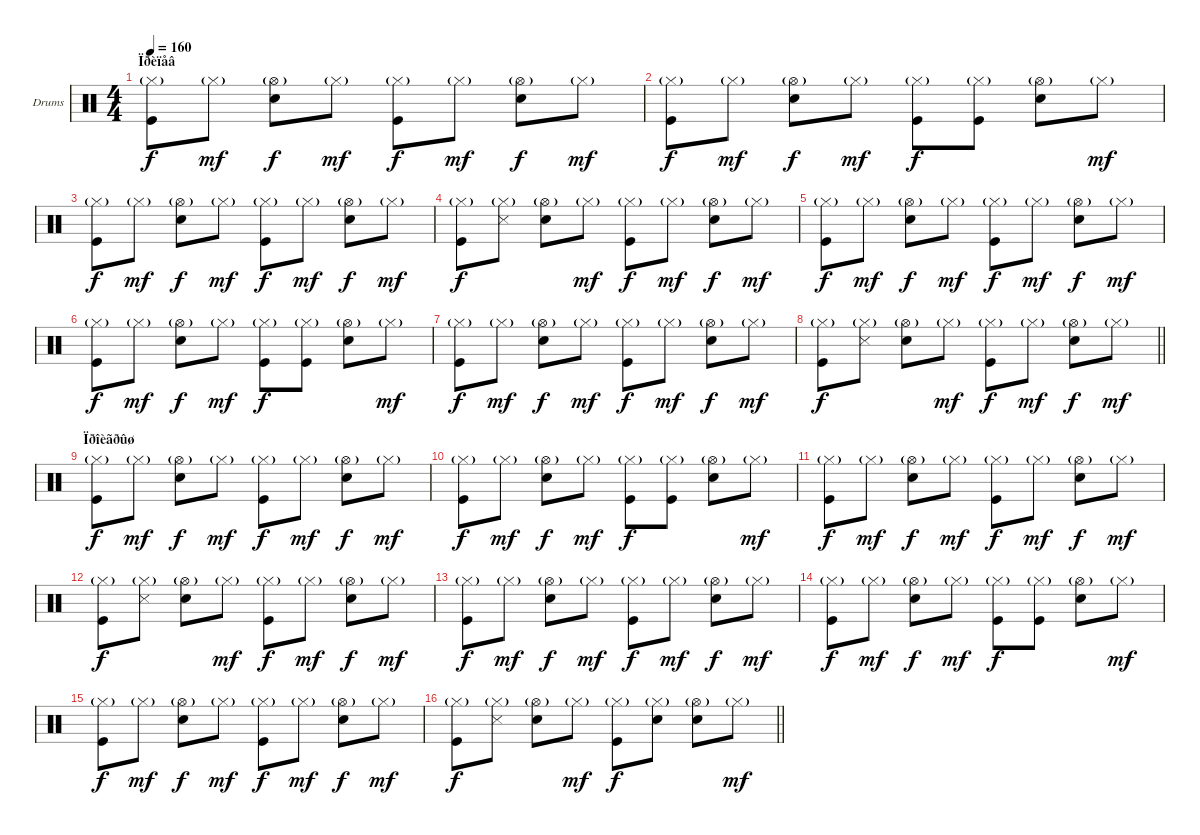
\bracketExtendMode groupsimilarinstruments
\firstSystemTrackNameOrientation horizontal
\otherSystemsTrackNameOrientation horizontal
\track ("Гурьянов" "Drums") {instrument percussion}
\staff {score}
\articulation defaults
\ts (4 4)
\section ("" "Ïðèïåâ")
\tempo 160
\clef neutral
\scale
0.333333
\ks c
("Hi-Hat (closed)"{g} "Kick (hit)").8{dy f} "Hi-Hat (closed)"{g}.8{dy mf} ("Hi-Hat (open)"{g} "Snare (hit) 2").8{dy f} "Hi-Hat (closed)"{g}.8{dy mf} ("Hi-Hat (closed)"{g} "Kick (hit)").8{dy f} "Hi-Hat (closed)"{g}.8{dy mf} ("Hi-Hat (open)"{g} "Snare (hit) 2").8{dy f} "Hi-Hat (closed)"{g}.8{dy mf} |
\scale
0.333333 ("Hi-Hat (closed)"{g} "Kick (hit)").8{dy f} "Hi-Hat (closed)"{g}.8{dy mf} ("Hi-Hat (open)"{g} "Snare (hit) 2").8{dy f} "Hi-Hat (closed)"{g}.8{dy mf} ("Hi-Hat (closed)"{g} "Kick (hit)").8{dy f} ("Hi-Hat (closed)"{g} "Kick (hit)").8 ("Hi-Hat (open)"{g} "Snare (hit) 2").8 "Hi-Hat (closed)"{g}.8{dy mf} |
\scale
0.333333 ("Hi-Hat (closed)"{g} "Kick (hit)").8{dy f} "Hi-Hat (closed)"{g}.8{dy mf} ("Hi-Hat (open)"{g} "Snare (hit) 2").8{dy f} "Hi-Hat (closed)"{g}.8{dy mf} ("Hi-Hat (closed)"{g} "Kick (hit)").8{dy f} "Hi-Hat (closed)"{g}.8{dy mf} ("Hi-Hat (open)"{g} "Snare (hit) 2").8{dy f} "Hi-Hat (closed)"{g}.8{dy mf} |
\scale
0.333333 ("Hi-Hat (closed)"{g} "Kick (hit)").8{dy f} ("Hi-Hat (closed)"{g} "Snare (side stick) 3").8 ("Hi-Hat (open)"{g} "Snare (hit) 2").8 "Hi-Hat (closed)"{g}.8{dy mf} ("Hi-Hat (closed)"{g} "Kick (hit)").8{dy f} "Hi-Hat (closed)"{g}.8{dy mf} ("Hi-Hat (open)"{g} "Snare (hit) 2").8{dy f} "Hi-Hat (closed)"{g}.8{dy mf} |
\scale
0.333333 ("Hi-Hat (closed)"{g} "Kick (hit)").8{dy f} "Hi-Hat (closed)"{g}.8{dy mf} ("Hi-Hat (open)"{g} "Snare (hit) 2").8{dy f} "Hi-Hat (closed)"{g}.8{dy mf} ("Hi-Hat (closed)"{g} "Kick (hit)").8{dy f} "Hi-Hat (closed)"{g}.8{dy mf} ("Hi-Hat (open)"{g} "Snare (hit) 2").8{dy f} "Hi-Hat (closed)"{g}.8{dy mf} |
\scale
0.333333 ("Hi-Hat (closed)"{g} "Kick (hit)").8{dy f} "Hi-Hat (closed)"{g}.8{dy mf} ("Hi-Hat (open)"{g} "Snare (hit) 2").8{dy f} "Hi-Hat (closed)"{g}.8{dy mf} ("Hi-Hat (closed)"{g} "Kick (hit)").8{dy f} ("Hi-Hat (closed)"{g} "Kick (hit)").8 ("Hi-Hat (open)"{g} "Snare (hit) 2").8 "Hi-Hat (closed)"{g}.8{dy mf} |
\scale
0.333333 ("Hi-Hat (closed)"{g} "Kick (hit)").8{dy f} "Hi-Hat (closed)"{g}.8{dy mf} ("Hi-Hat (open)"{g} "Snare (hit) 2").8{dy f} "Hi-Hat (closed)"{g}.8{dy mf} ("Hi-Hat (closed)"{g} "Kick (hit)").8{dy f} "Hi-Hat (closed)"{g}.8{dy mf} ("Hi-Hat (open)"{g} "Snare (hit) 2").8{dy f} "Hi-Hat (closed)"{g}.8{dy mf} |
\scale
0.333333
\barLineRight lightlight
("Hi-Hat (closed)"{g} "Kick (hit)").8{dy f} ("Hi-Hat (closed)"{g} "Snare (side stick) 3").8 ("Hi-Hat (open)"{g} "Snare (hit) 2").8 "Hi-Hat (closed)"{g}.8{dy mf} ("Hi-Hat (closed)"{g} "Kick (hit)").8{dy f} "Hi-Hat (closed)"{g}.8{dy mf} ("Hi-Hat (open)"{g} "Snare (hit) 2").8{dy f} "Hi-Hat (closed)"{g}.8{dy mf} |
\section ("" "Ïðîèãðûø")
\scale
0.333333 ("Hi-Hat (closed)"{g} "Kick (hit)").8{dy f} "Hi-Hat (closed)"{g}.8{dy mf} ("Hi-Hat (open)"{g} "Snare (hit) 2").8{dy f} "Hi-Hat (closed)"{g}.8{dy mf} ("Hi-Hat (closed)"{g} "Kick (hit)").8{dy f} "Hi-Hat (closed)"{g}.8{dy mf} ("Hi-Hat (open)"{g} "Snare (hit) 2").8{dy f} "Hi-Hat (closed)"{g}.8{dy mf} |
\scale
0.333333 ("Hi-Hat (closed)"{g} "Kick (hit)").8{dy f} "Hi-Hat (closed)"{g}.8{dy mf} ("Hi-Hat (open)"{g} "Snare (hit) 2").8{dy f} "Hi-Hat (closed)"{g}.8{dy mf} ("Hi-Hat (closed)"{g} "Kick (hit)").8{dy f} ("Hi-Hat (closed)"{g} "Kick (hit)").8 ("Hi-Hat (open)"{g} "Snare (hit) 2").8 "Hi-Hat (closed)"{g}.8{dy mf} |
\scale
0.333333 ("Hi-Hat (closed)"{g} "Kick (hit)").8{dy f} "Hi-Hat (closed)"{g}.8{dy mf} ("Hi-Hat (open)"{g} "Snare (hit) 2").8{dy f} "Hi-Hat (closed)"{g}.8{dy mf} ("Hi-Hat (closed)"{g} "Kick (hit)").8{dy f} "Hi-Hat (closed)"{g}.8{dy mf} ("Hi-Hat (open)"{g} "Snare (hit) 2").8{dy f} "Hi-Hat (closed)"{g}.8{dy mf} |
\scale
0.333333 ("Hi-Hat (closed)"{g} "Kick (hit)").8{dy f} ("Hi-Hat (closed)"{g} "Snare (side stick) 3").8 ("Hi-Hat (open)"{g} "Snare (hit) 2").8 "Hi-Hat (closed)"{g}.8{dy mf} ("Hi-Hat (closed)"{g} "Kick (hit)").8{dy f} "Hi-Hat (closed)"{g}.8{dy mf} ("Hi-Hat (open)"{g} "Snare (hit) 2").8{dy f} "Hi-Hat (closed)"{g}.8{dy mf} |
\scale
0.333333 ("Hi-Hat (closed)"{g} "Kick (hit)").8{dy f} "Hi-Hat (closed)"{g}.8{dy mf} ("Hi-Hat (open)"{g} "Snare (hit) 2").8{dy f} "Hi-Hat (closed)"{g}.8{dy mf} ("Hi-Hat (closed)"{g} "Kick (hit)").8{dy f} "Hi-Hat (closed)"{g}.8{dy mf} ("Hi-Hat (open)"{g} "Snare (hit) 2").8{dy f} "Hi-Hat (closed)"{g}.8{dy mf} |
\scale
0.333333 ("Hi-Hat (closed)"{g} "Kick (hit)").8{dy f} "Hi-Hat (closed)"{g}.8{dy mf} ("Hi-Hat (open)"{g} "Snare (hit) 2").8{dy f} "Hi-Hat (closed)"{g}.8{dy mf} ("Hi-Hat (closed)"{g} "Kick (hit)").8{dy f} ("Hi-Hat (closed)"{g} "Kick (hit)").8 ("Hi-Hat (open)"{g} "Snare (hit) 2").8 "Hi-Hat (closed)"{g}.8{dy mf} |
\scale
0.333333 ("Hi-Hat (closed)"{g} "Kick (hit)").8{dy f} "Hi-Hat (closed)"{g}.8{dy mf} ("Hi-Hat (open)"{g} "Snare (hit) 2").8{dy f} "Hi-Hat (closed)"{g}.8{dy mf} ("Hi-Hat (closed)"{g} "Kick (hit)").8{dy f} "Hi-Hat (closed)"{g}.8{dy mf} ("Hi-Hat (open)"{g} "Snare (hit) 2").8{dy f} "Hi-Hat (closed)"{g}.8{dy mf} |
\scale
0.333333
\barLineRight lightlight
("Hi-Hat (closed)"{g} "Kick (hit)").8{dy f} ("Hi-Hat (closed)"{g} "Snare (side stick) 3").8 ("Hi-Hat (open)"{g} "Snare (hit) 2").8 "Hi-Hat (closed)"{g}.8{dy mf} ("Hi-Hat (closed)"{g} "Kick (hit)").8{dy f} ("Hi-Hat (closed)"{g} "Snare (hit) 2").8 ("Hi-Hat (open)"{g} "Snare (hit) 2").8 "Hi-Hat (closed)"{g}.8{dy mf}
